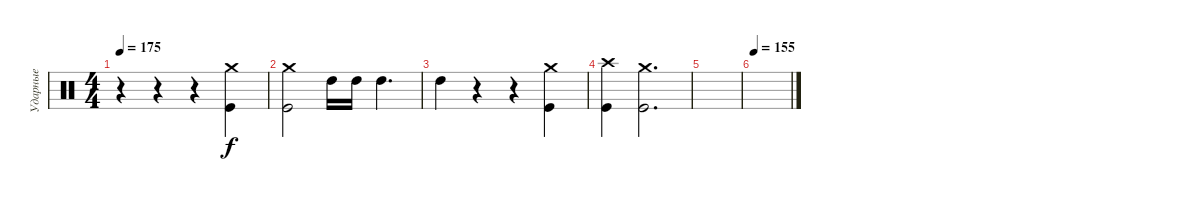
\track ("Ударные" "Ударные") {instrument percussion}
\staff {score}
\articulation defaults
\ts (4 4)
\tempo 175
\clef neutral
\ks c
r.4{dy f} r.4 r.4 ("Crash medium (hit)" "Kick (hit)").4 |
("Crash medium (hit)" "Kick (hit)").2 "High Tom (hit)".16 "High Tom (hit)".16 "High Tom (hit)".4{d} |
"High Tom (hit)".4 r.4 r.4 ("Crash medium (hit)" "Kick (hit)").4 |
("Crash high (hit)" "Kick (hit)").4 ("Crash medium (hit)" "Kick (hit)").2{d} |
|
\tempo 155
